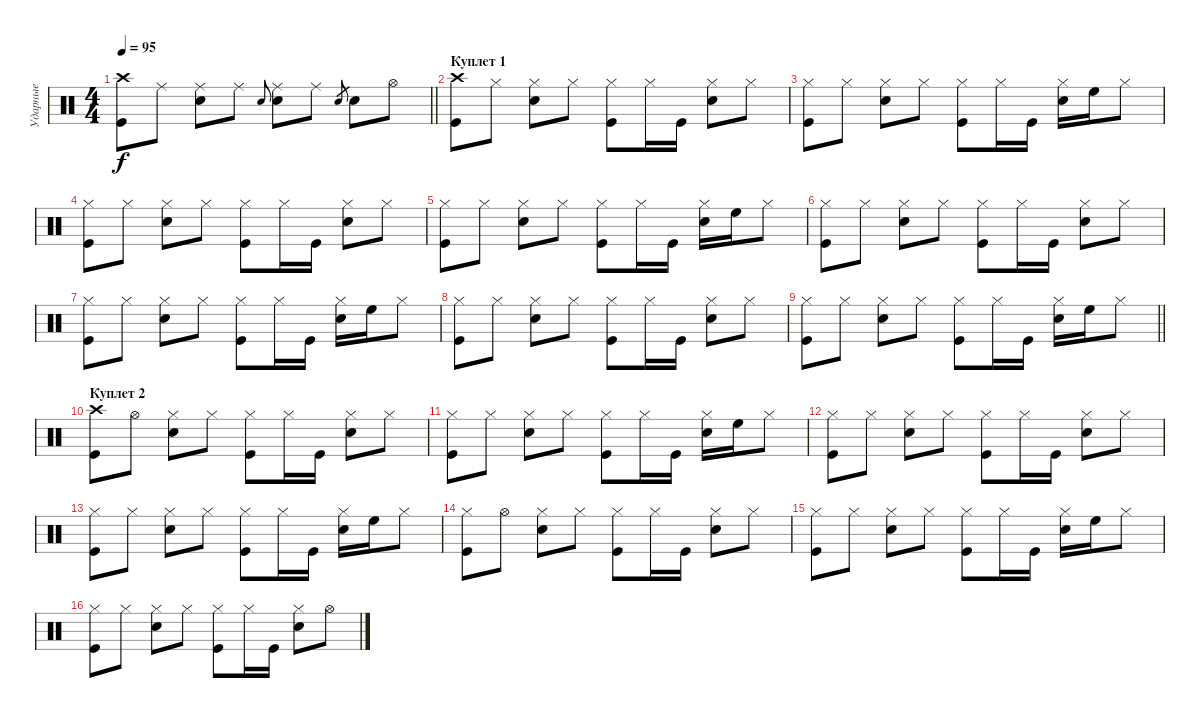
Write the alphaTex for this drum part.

\track ("Ударные" "Ударные") {instrument percussion}
\staff {score}
\articulation defaults
\ts (4 4)
\tempo 95
\clef neutral
\barLineRight lightlight
\ks c
("Crash high (hit)" "Kick (hit)").8{dy f} "Ride (middle)".8 ("Ride (middle)" "Snare (hit) 2").8 "Ride (middle)".8 "Snare (hit) 2".8{gr onbeat} ("Ride (middle)" "Snare (hit) 2").8 "Ride (middle)".8 "Snare (hit) 2".8{gr} "Snare (hit) 2".8 "Hi-Hat (open)".8 |
\section ("" "Куплет 1")
("Crash high (hit)" "Kick (hit)").8{volume 12} "Hi-Hat (closed)".8 ("Hi-Hat (closed)" "Snare (hit) 2").8 "Hi-Hat (closed)".8 ("Hi-Hat (closed)" "Kick (hit)").8 "Hi-Hat (closed)".16 "Kick (hit)".16 ("Hi-Hat (closed)" "Snare (hit) 2").8 "Hi-Hat (closed)".8 |
("Hi-Hat (closed)" "Kick (hit)").8 "Hi-Hat (closed)".8 ("Hi-Hat (closed)" "Snare (hit) 2").8 "Hi-Hat (closed)".8 ("Hi-Hat (closed)" "Kick (hit)").8 "Hi-Hat (closed)".16 "Kick (hit)".16 ("Hi-Hat (closed)" "Snare (hit) 2").16 "High Floor Tom (hit)".16 "Hi-Hat (closed)".8 |
("Hi-Hat (closed)" "Kick (hit)").8 "Hi-Hat (closed)".8 ("Hi-Hat (closed)" "Snare (hit) 2").8 "Hi-Hat (closed)".8 ("Hi-Hat (closed)" "Kick (hit)").8 "Hi-Hat (closed)".16 "Kick (hit)".16 ("Hi-Hat (closed)" "Snare (hit) 2").8 "Hi-Hat (closed)".8 |
("Hi-Hat (closed)" "Kick (hit)").8 "Hi-Hat (closed)".8 ("Hi-Hat (closed)" "Snare (hit) 2").8 "Hi-Hat (closed)".8 ("Hi-Hat (closed)" "Kick (hit)").8 "Hi-Hat (closed)".16 "Kick (hit)".16 ("Hi-Hat (closed)" "Snare (hit) 2").16 "High Floor Tom (hit)".16 "Hi-Hat (closed)".8 |
("Hi-Hat (closed)" "Kick (hit)").8 "Hi-Hat (closed)".8 ("Hi-Hat (closed)" "Snare (hit) 2").8 "Hi-Hat (closed)".8 ("Hi-Hat (closed)" "Kick (hit)").8 "Hi-Hat (closed)".16 "Kick (hit)".16 ("Hi-Hat (closed)" "Snare (hit) 2").8 "Hi-Hat (closed)".8 |
("Hi-Hat (closed)" "Kick (hit)").8 "Hi-Hat (closed)".8 ("Hi-Hat (closed)" "Snare (hit) 2").8 "Hi-Hat (closed)".8 ("Hi-Hat (closed)" "Kick (hit)").8 "Hi-Hat (closed)".16 "Kick (hit)".16 ("Hi-Hat (closed)" "Snare (hit) 2").16 "High Floor Tom (hit)".16 "Hi-Hat (closed)".8 |
("Hi-Hat (closed)" "Kick (hit)").8 "Hi-Hat (closed)".8 ("Hi-Hat (closed)" "Snare (hit) 2").8 "Hi-Hat (closed)".8 ("Hi-Hat (closed)" "Kick (hit)").8 "Hi-Hat (closed)".16 "Kick (hit)".16 ("Hi-Hat (closed)" "Snare (hit) 2").8 "Hi-Hat (closed)".8 |
\barLineRight lightlight
("Hi-Hat (closed)" "Kick (hit)").8 "Hi-Hat (closed)".8 ("Hi-Hat (closed)" "Snare (hit) 2").8 "Hi-Hat (closed)".8 ("Hi-Hat (closed)" "Kick (hit)").8 "Hi-Hat (closed)".16 "Kick (hit)".16 ("Hi-Hat (closed)" "Snare (hit) 2").16 "High Floor Tom (hit)".16 "Hi-Hat (closed)".8 |
\section ("" "Куплет 2")
("Crash high (hit)" "Kick (hit)").8 "Hi-Hat (open)".8 ("Hi-Hat (closed)" "Snare (hit) 2").8 "Hi-Hat (closed)".8 ("Hi-Hat (closed)" "Kick (hit)").8 "Hi-Hat (closed)".16 "Kick (hit)".16 ("Hi-Hat (closed)" "Snare (hit) 2").8 "Hi-Hat (closed)".8 |
("Hi-Hat (closed)" "Kick (hit)").8 "Hi-Hat (closed)".8 ("Hi-Hat (closed)" "Snare (hit) 2").8 "Hi-Hat (closed)".8 ("Hi-Hat (closed)" "Kick (hit)").8 "Hi-Hat (closed)".16 "Kick (hit)".16 ("Hi-Hat (closed)" "Snare (hit) 2").16 "High Floor Tom (hit)".16 "Hi-Hat (closed)".8 |
("Hi-Hat (closed)" "Kick (hit)").8 "Hi-Hat (closed)".8 ("Hi-Hat (closed)" "Snare (hit) 2").8 "Hi-Hat (closed)".8 ("Hi-Hat (closed)" "Kick (hit)").8 "Hi-Hat (closed)".16 "Kick (hit)".16 ("Hi-Hat (closed)" "Snare (hit) 2").8 "Hi-Hat (closed)".8 |
("Hi-Hat (closed)" "Kick (hit)").8 "Hi-Hat (closed)".8 ("Hi-Hat (closed)" "Snare (hit) 2").8 "Hi-Hat (closed)".8 ("Hi-Hat (closed)" "Kick (hit)").8 "Hi-Hat (closed)".16 "Kick (hit)".16 ("Hi-Hat (closed)" "Snare (hit) 2").16 "High Floor Tom (hit)".16 "Hi-Hat (closed)".8 |
("Hi-Hat (closed)" "Kick (hit)").8 "Hi-Hat (open)".8 ("Hi-Hat (closed)" "Snare (hit) 2").8 "Hi-Hat (closed)".8 ("Hi-Hat (closed)" "Kick (hit)").8 "Hi-Hat (closed)".16 "Kick (hit)".16 ("Hi-Hat (closed)" "Snare (hit) 2").8 "Hi-Hat (closed)".8 |
("Hi-Hat (closed)" "Kick (hit)").8 "Hi-Hat (closed)".8 ("Hi-Hat (closed)" "Snare (hit) 2").8 "Hi-Hat (closed)".8 ("Hi-Hat (closed)" "Kick (hit)").8 "Hi-Hat (closed)".16 "Kick (hit)".16 ("Hi-Hat (closed)" "Snare (hit) 2").16 "High Floor Tom (hit)".16 "Hi-Hat (closed)".8 |
("Hi-Hat (closed)" "Kick (hit)").8 "Hi-Hat (closed)".8 ("Hi-Hat (closed)" "Snare (hit) 2").8 "Hi-Hat (closed)".8 ("Hi-Hat (closed)" "Kick (hit)").8 "Hi-Hat (closed)".16 "Kick (hit)".16 ("Hi-Hat (closed)" "Snare (hit) 2").8 "Hi-Hat (open)".8
